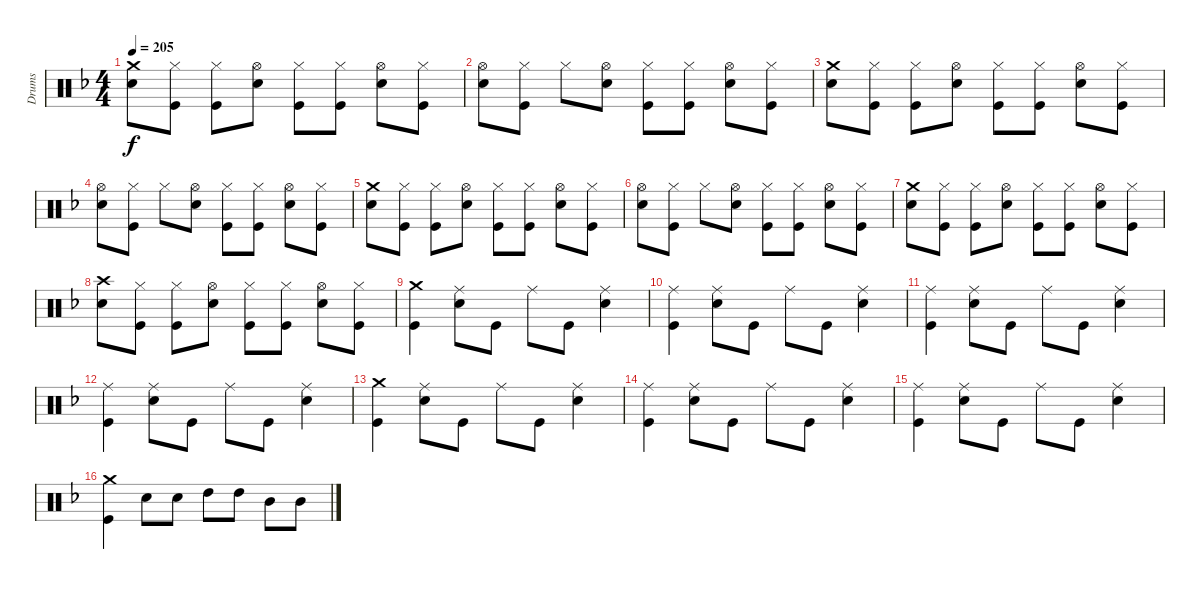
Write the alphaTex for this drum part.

\track ("Drums" "Drums") {instrument percussion}
\staff {score}
\articulation defaults
\ts (4 4)
\tempo 205
\clef neutral
\ks f
("Crash medium (hit)" "Electric Snare (hit)").8{dy f} ("Hi-Hat (closed)" "Kick (hit)").8 ("Hi-Hat (closed)" "Kick (hit)").8 ("Hi-Hat (open)" "Electric Snare (hit)").8 ("Hi-Hat (closed)" "Kick (hit)").8 ("Hi-Hat (closed)" "Kick (hit)").8 ("Hi-Hat (open)" "Electric Snare (hit)").8 ("Hi-Hat (closed)" "Kick (hit)").8 |
("Hi-Hat (open)" "Electric Snare (hit)").8 ("Hi-Hat (closed)" "Kick (hit)").8 "Hi-Hat (closed)".8 ("Hi-Hat (open)" "Electric Snare (hit)").8 ("Hi-Hat (closed)" "Kick (hit)").8 ("Hi-Hat (closed)" "Kick (hit)").8 ("Hi-Hat (open)" "Electric Snare (hit)").8 ("Hi-Hat (closed)" "Kick (hit)").8 |
("Crash medium (hit)" "Electric Snare (hit)").8 ("Hi-Hat (closed)" "Kick (hit)").8 ("Hi-Hat (closed)" "Kick (hit)").8 ("Hi-Hat (open)" "Electric Snare (hit)").8 ("Hi-Hat (closed)" "Kick (hit)").8 ("Hi-Hat (closed)" "Kick (hit)").8 ("Hi-Hat (open)" "Electric Snare (hit)").8 ("Hi-Hat (closed)" "Kick (hit)").8 |
("Hi-Hat (open)" "Electric Snare (hit)").8 ("Hi-Hat (closed)" "Kick (hit)").8 "Hi-Hat (closed)".8 ("Hi-Hat (open)" "Electric Snare (hit)").8 ("Hi-Hat (closed)" "Kick (hit)").8 ("Hi-Hat (closed)" "Kick (hit)").8 ("Hi-Hat (open)" "Electric Snare (hit)").8 ("Hi-Hat (closed)" "Kick (hit)").8 |
("Crash medium (hit)" "Electric Snare (hit)").8 ("Hi-Hat (closed)" "Kick (hit)").8 ("Hi-Hat (closed)" "Kick (hit)").8 ("Hi-Hat (open)" "Electric Snare (hit)").8 ("Hi-Hat (closed)" "Kick (hit)").8 ("Hi-Hat (closed)" "Kick (hit)").8 ("Hi-Hat (open)" "Electric Snare (hit)").8 ("Hi-Hat (closed)" "Kick (hit)").8 |
("Hi-Hat (open)" "Electric Snare (hit)").8 ("Hi-Hat (closed)" "Kick (hit)").8 "Hi-Hat (closed)".8 ("Hi-Hat (open)" "Electric Snare (hit)").8 ("Hi-Hat (closed)" "Kick (hit)").8 ("Hi-Hat (closed)" "Kick (hit)").8 ("Hi-Hat (open)" "Electric Snare (hit)").8 ("Hi-Hat (closed)" "Kick (hit)").8 |
("Crash medium (hit)" "Electric Snare (hit)").8 ("Hi-Hat (closed)" "Kick (hit)").8 ("Hi-Hat (closed)" "Kick (hit)").8 ("Hi-Hat (open)" "Electric Snare (hit)").8 ("Hi-Hat (closed)" "Kick (hit)").8 ("Hi-Hat (closed)" "Kick (hit)").8 ("Hi-Hat (open)" "Electric Snare (hit)").8 ("Hi-Hat (closed)" "Kick (hit)").8 |
("Crash high (hit)" "Electric Snare (hit)").8 ("Hi-Hat (closed)" "Kick (hit)").8 ("Hi-Hat (closed)" "Kick (hit)").8 ("Hi-Hat (open)" "Electric Snare (hit)").8 ("Hi-Hat (closed)" "Kick (hit)").8 ("Hi-Hat (closed)" "Kick (hit)").8 ("Hi-Hat (open)" "Electric Snare (hit)").8 ("Hi-Hat (closed)" "Kick (hit)").8 |
("Crash medium (hit)" "Kick (hit)").4 ("Ride (middle)" "Electric Snare (hit)").8 "Kick (hit)".8 "Ride (middle)".8 "Kick (hit)".8 ("Ride (middle)" "Electric Snare (hit)").4 |
("Ride (middle)" "Kick (hit)").4 ("Ride (middle)" "Electric Snare (hit)").8 "Kick (hit)".8 "Ride (middle)".8 "Kick (hit)".8 ("Ride (middle)" "Electric Snare (hit)").4 |
("Ride (middle)" "Kick (hit)").4 ("Ride (middle)" "Electric Snare (hit)").8 "Kick (hit)".8 "Ride (middle)".8 "Kick (hit)".8 ("Ride (middle)" "Electric Snare (hit)").4 |
("Ride (middle)" "Kick (hit)").4 ("Ride (middle)" "Electric Snare (hit)").8 "Kick (hit)".8 "Ride (middle)".8 "Kick (hit)".8 ("Ride (middle)" "Electric Snare (hit)").4 |
("Crash medium (hit)" "Kick (hit)").4 ("Ride (middle)" "Electric Snare (hit)").8 "Kick (hit)".8 "Ride (middle)".8 "Kick (hit)".8 ("Ride (middle)" "Electric Snare (hit)").4 |
("Ride (middle)" "Kick (hit)").4 ("Ride (middle)" "Electric Snare (hit)").8 "Kick (hit)".8 "Ride (middle)".8 "Kick (hit)".8 ("Ride (middle)" "Electric Snare (hit)").4 |
("Ride (middle)" "Kick (hit)").4 ("Ride (middle)" "Electric Snare (hit)").8 "Kick (hit)".8 "Ride (middle)".8 "Kick (hit)".8 ("Ride (middle)" "Electric Snare (hit)").4 |
("Crash medium (hit)" "Kick (hit)").4 "Electric Snare (hit)".8 "Electric Snare (hit)".8 "High Tom (hit)".8 "High Tom (hit)".8 "Mid Tom (hit)".8 "Mid Tom (hit)".8
